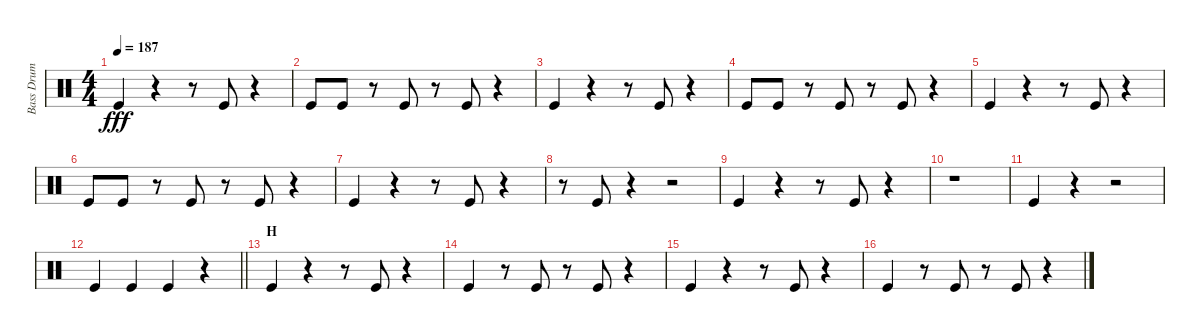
\track ("Bass Drum" "Bass Drum") {instrument percussion}
\staff {score}
\articulation defaults
\ts (4 4)
\tempo 187
\clef neutral
\ks c "Kick (hit)".4{dy fff}
r.4 r.8 "Kick (hit)".8 r.4 |
"Kick (hit)".8 "Kick (hit)".8 r.8 "Kick (hit)".8 r.8 "Kick (hit)".8 r.4 |
"Kick (hit)".4 r.4 r.8 "Kick (hit)".8 r.4 |
"Kick (hit)".8 "Kick (hit)".8 r.8 "Kick (hit)".8 r.8 "Kick (hit)".8 r.4 |
"Kick (hit)".4 r.4 r.8 "Kick (hit)".8 r.4 |
"Kick (hit)".8 "Kick (hit)".8 r.8 "Kick (hit)".8 r.8 "Kick (hit)".8 r.4 |
"Kick (hit)".4 r.4 r.8 "Kick (hit)".8 r.4 |
r.8 "Kick (hit)".8 r.4 r.2 |
"Kick (hit)".4 r.4 r.8 "Kick (hit)".8 r.4 |
r.1 |
"Kick (hit)".4 r.4 r.2 |
\barLineRight lightlight "Kick (hit)".4 "Kick (hit)".4 "Kick (hit)".4
r.4 |
\section ("" "H")
"Kick (hit)".4 r.4 r.8 "Kick (hit)".8 r.4 |
"Kick (hit)".4 r.8 "Kick (hit)".8 r.8 "Kick (hit)".8 r.4 |
"Kick (hit)".4 r.4 r.8 "Kick (hit)".8 r.4 |
"Kick (hit)".4 r.8 "Kick (hit)".8 r.8 "Kick (hit)".8 r.4
